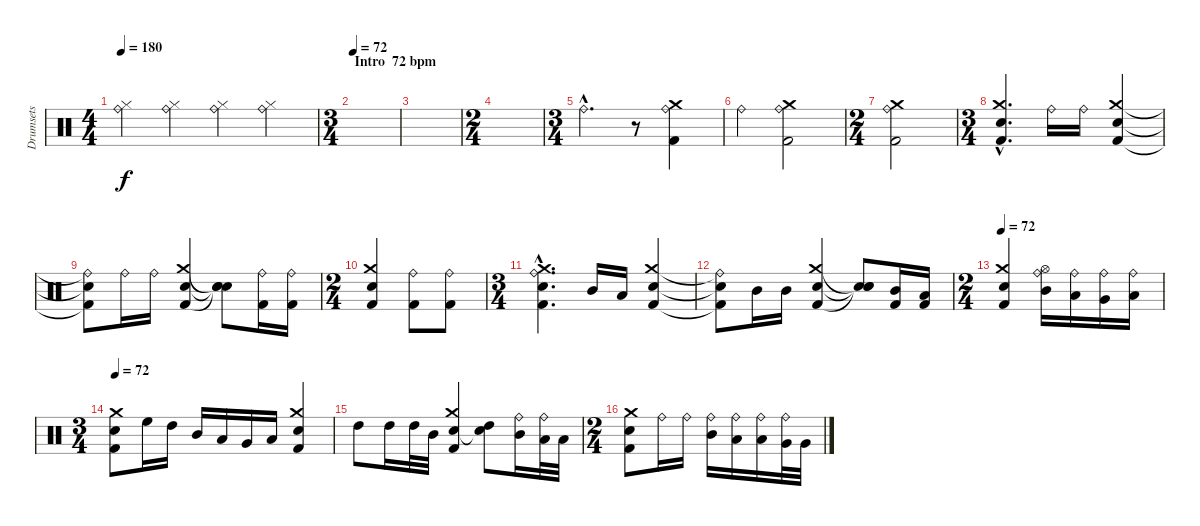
\track ("Drumsets" "Drumsets") {instrument percussion}
\staff {score}
\articulation defaults
\ts (4 4)
\tempo 180
\tempo 75
\tempo 180
\clef neutral
\ks c
("Ride (bell)" "Hi-Hat (closed)").4{dy f} ("Ride (bell)" "Hi-Hat (closed)").4 ("Ride (bell)" "Hi-Hat (closed)").4 ("Ride (bell)" "Hi-Hat (closed)").4 |
\ts (3 4)
\section ("" "Intro  72 bpm")
\tempo 72
|
|
\ts (2 4)
|
\ts (3 4)
"Ride (bell)"{hac}.4{d} r.8 ("Kick (hit) 2" "Crash medium (hit)" "Ride (bell)").4 |
"Ride (bell)".4 ("Kick (hit) 2" "Crash medium (hit)" "Ride (bell)").2 |
\ts (2 4)
("Kick (hit) 2" "Crash medium (hit)" "Ride (bell)").2 |
\ts (3 4)
("Kick (hit) 2"{hac} "Snare (hit) 2"{hac} "Crash medium (hit)"{hac}).4{d} "Ride (bell)".16 "Ride (bell)".16 ("Kick (hit) 2" "Snare (hit) 2" "Crash medium (hit)").4 |
("Kick (hit) 2"{t} "Snare (hit) 2"{t} "Ride (bell)"{t}).8 "Ride (bell)".16 "Ride (bell)".16 ("Snare (hit) 2" "Kick (hit) 2" "Crash medium (hit)").4 ("Snare (hit)"{t} "Snare (hit)"{t} "Snare (hit)"{t}).8 ("Kick (hit) 2" "Ride (bell)").16 ("Kick (hit) 2" "Ride (bell)").16 |
\ts (2 4)
("Snare (hit) 2" "Kick (hit) 2" "Crash medium (hit)").4 ("Kick (hit) 2" "Ride (bell)").8 ("Kick (hit) 2" "Ride (bell)").8 |
\ts (3 4)
("Ride (bell)"{hac} "Kick (hit) 2"{hac} "Snare (hit) 2"{hac} "Crash medium (hit)"{hac}).4{d} "Mid Tom (hit)".16 "Low Tom (hit)".16 ("Kick (hit) 2" "Snare (hit) 2" "Crash medium (hit)").4 |
("Kick (hit) 2"{t} "Snare (hit) 2"{t} "Ride (bell)"{t}).8 "Mid Tom (hit)".16 "Mid Tom (hit)".16 ("Snare (hit) 2" "Kick (hit) 2" "Crash medium (hit)").4 ("Snare (hit)"{t} "Snare (hit)"{t} "Snare (hit)"{t}).8 ("Kick (hit) 2" "Mid Tom (hit)").16 ("Kick (hit) 2" "Low Tom (hit)").16 |
\ts (2 4)
\tempo 72
("Snare (hit) 2" "Kick (hit) 2" "Crash medium (hit)").4 ("Hi-Hat (open)" "Mid Tom (hit)" "Ride (bell)").16 ("Low Tom (hit)" "Ride (bell)").16 ("Very Low Tom (hit)" "Ride (bell)").16 ("Low Floor Tom (hit)" "Ride (bell)").16 |
\ts (3 4)
\tempo 72
("Kick (hit) 2" "Snare (hit) 2" "Crash medium (hit)").8 "High Floor Tom (hit)".16 "High Tom (hit)".16 "Mid Tom (hit)".16 "Low Tom (hit)".16 "Very Low Tom (hit)".16 "Low Floor Tom (hit)".16 ("Kick (hit) 2" "Snare (hit) 2" "Crash medium (hit)").4 |
"High Tom (hit)".8 "High Tom (hit)".16 "High Tom (hit)".32 "Mid Tom (hit)".32 ("Kick (hit) 2" "Snare (hit) 2" "Crash medium (hit)").4 ("High Tom (hit)" "Snare (hit)"{t}).8 ("Ride (bell)" "Mid Tom (hit)").16 ("Ride (bell)" "Low Tom (hit)").32 "Low Tom (hit)".32 |
\ts (2 4)
("Kick (hit) 2" "Snare (hit) 2" "Crash medium (hit)").8 "Ride (bell)".16 "Ride (bell)".16 ("Ride (bell)" "Mid Tom (hit)").16 ("Ride (bell)" "Low Tom (hit)").16 ("Low Tom (hit)" "Ride (bell)").16 ("Very Low Tom (hit)" "Ride (bell)").32 "Very Low Tom (hit)".32
